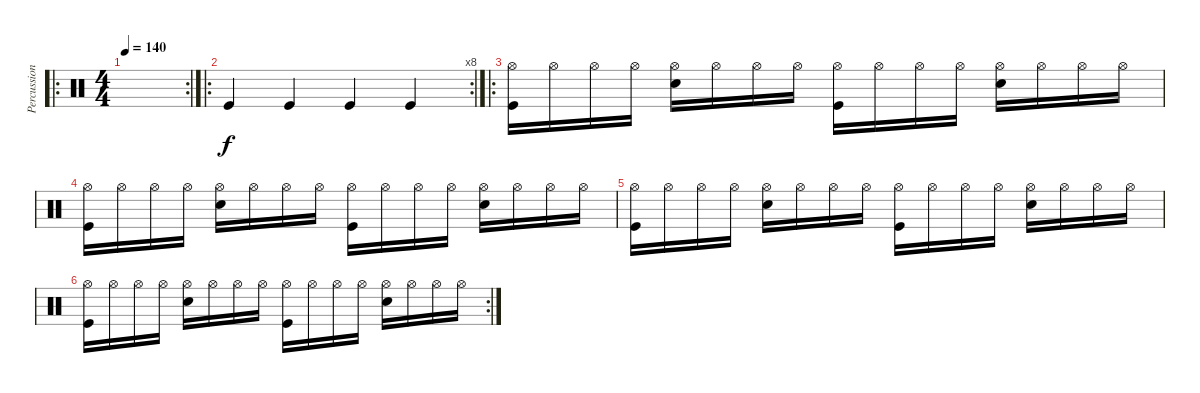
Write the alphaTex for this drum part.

\track ("Percussion" "Percussion") {instrument percussion}
\staff {score}
\articulation defaults
\ro
\rc 2
\ts (4 4)
\tempo 140
\clef neutral
\ks c
|
\ro
\rc 8 "Kick (hit)".4 "Kick (hit)".4 "Kick (hit)".4 "Kick (hit)".4
|
\ro
("Hi-Hat (open)" "Kick (hit)").16 "Hi-Hat (open)".16 "Hi-Hat (open)".16 "Hi-Hat (open)".16 ("Hi-Hat (open)" "Snare (hit) 2").16 "Hi-Hat (open)".16 "Hi-Hat (open)".16 "Hi-Hat (open)".16 ("Hi-Hat (open)" "Kick (hit)").16 "Hi-Hat (open)".16 "Hi-Hat (open)".16 "Hi-Hat (open)".16 ("Hi-Hat (open)" "Snare (hit) 2").16 "Hi-Hat (open)".16 "Hi-Hat (open)".16 "Hi-Hat (open)".16 |
("Hi-Hat (open)" "Kick (hit)").16 "Hi-Hat (open)".16 "Hi-Hat (open)".16 "Hi-Hat (open)".16 ("Hi-Hat (open)" "Snare (hit) 2").16 "Hi-Hat (open)".16 "Hi-Hat (open)".16 "Hi-Hat (open)".16 ("Hi-Hat (open)" "Kick (hit)").16 "Hi-Hat (open)".16 "Hi-Hat (open)".16 "Hi-Hat (open)".16 ("Hi-Hat (open)" "Snare (hit) 2").16 "Hi-Hat (open)".16 "Hi-Hat (open)".16 "Hi-Hat (open)".16 |
("Hi-Hat (open)" "Kick (hit)").16 "Hi-Hat (open)".16 "Hi-Hat (open)".16 "Hi-Hat (open)".16 ("Hi-Hat (open)" "Snare (hit) 2").16 "Hi-Hat (open)".16 "Hi-Hat (open)".16 "Hi-Hat (open)".16 ("Hi-Hat (open)" "Kick (hit)").16 "Hi-Hat (open)".16 "Hi-Hat (open)".16 "Hi-Hat (open)".16 ("Hi-Hat (open)" "Snare (hit) 2").16 "Hi-Hat (open)".16 "Hi-Hat (open)".16 "Hi-Hat (open)".16 |
\rc 2
("Hi-Hat (open)" "Kick (hit)").16 "Hi-Hat (open)".16 "Hi-Hat (open)".16 "Hi-Hat (open)".16 ("Hi-Hat (open)" "Snare (hit) 2").16 "Hi-Hat (open)".16 "Hi-Hat (open)".16 "Hi-Hat (open)".16 ("Hi-Hat (open)" "Kick (hit)").16 "Hi-Hat (open)".16 "Hi-Hat (open)".16 "Hi-Hat (open)".16 ("Hi-Hat (open)" "Snare (hit) 2").16 "Hi-Hat (open)".16 "Hi-Hat (open)".16 "Hi-Hat (open)".16
